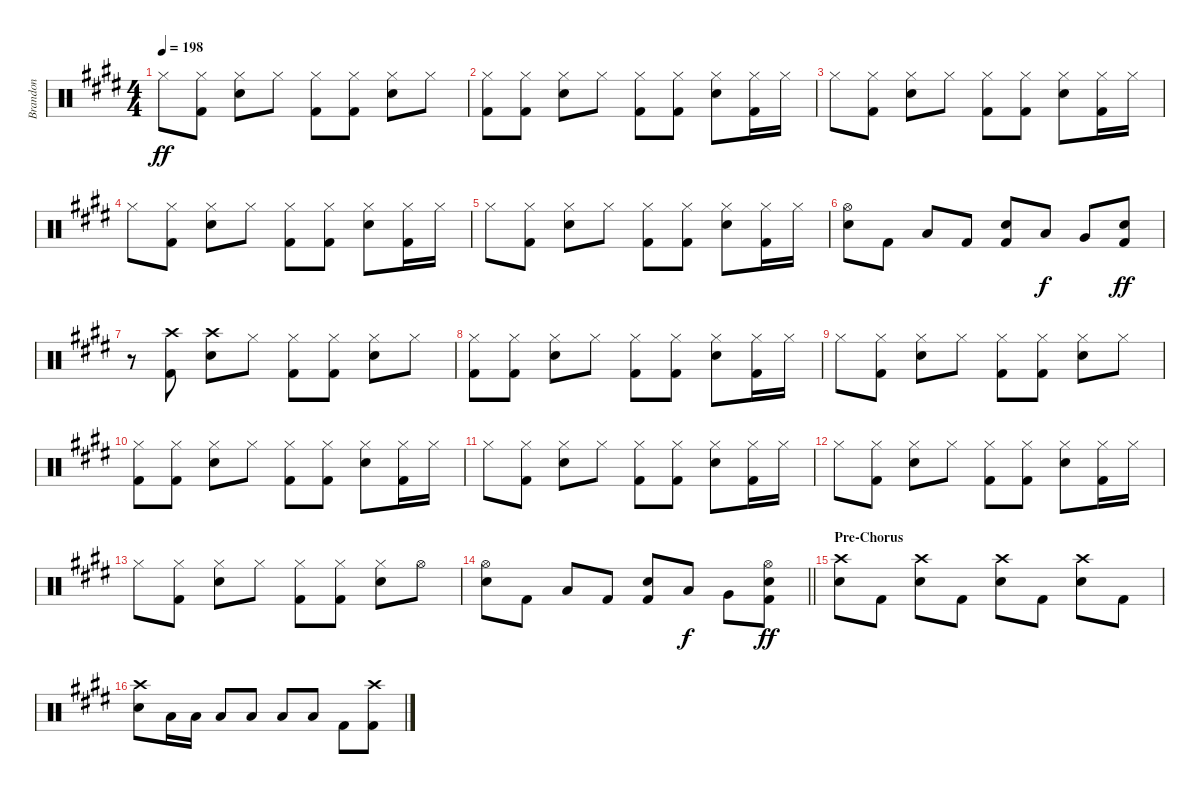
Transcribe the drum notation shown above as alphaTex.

\track ("Brandon" "Brandon") {instrument percussion}
\staff {score}
\articulation defaults
\ts (4 4)
\tempo 198
\clef neutral
\ks e "Hi-Hat (closed)".8{dy ff}
("Kick (hit) 2" "Hi-Hat (closed)").8 ("Snare (hit) 2" "Hi-Hat (closed)").8 "Hi-Hat (closed)".8 ("Hi-Hat (closed)" "Kick (hit) 2").8 ("Kick (hit) 2" "Hi-Hat (closed)").8 ("Snare (hit) 2" "Hi-Hat (closed)").8 "Hi-Hat (closed)".8 |
("Hi-Hat (closed)" "Kick (hit) 2").8 ("Kick (hit) 2" "Hi-Hat (closed)").8 ("Snare (hit) 2" "Hi-Hat (closed)").8 "Hi-Hat (closed)".8 ("Kick (hit) 2" "Hi-Hat (closed)").8 ("Kick (hit) 2" "Hi-Hat (closed)").8 ("Snare (hit) 2" "Hi-Hat (closed)").8 ("Kick (hit) 2" "Hi-Hat (closed)").16 "Hi-Hat (closed)".16 |
"Hi-Hat (closed)".8 ("Kick (hit) 2" "Hi-Hat (closed)").8 ("Snare (hit) 2" "Hi-Hat (closed)").8 "Hi-Hat (closed)".8 ("Kick (hit) 2" "Hi-Hat (closed)").8 ("Kick (hit) 2" "Hi-Hat (closed)").8 ("Snare (hit) 2" "Hi-Hat (closed)").8 ("Kick (hit) 2" "Hi-Hat (closed)").16 "Hi-Hat (closed)".16 |
"Hi-Hat (closed)".8 ("Kick (hit) 2" "Hi-Hat (closed)").8 ("Snare (hit) 2" "Hi-Hat (closed)").8 "Hi-Hat (closed)".8 ("Kick (hit) 2" "Hi-Hat (closed)").8 ("Kick (hit) 2" "Hi-Hat (closed)").8 ("Snare (hit) 2" "Hi-Hat (closed)").8 ("Kick (hit) 2" "Hi-Hat (closed)").16 "Hi-Hat (closed)".16 |
"Hi-Hat (closed)".8 ("Kick (hit) 2" "Hi-Hat (closed)").8 ("Snare (hit) 2" "Hi-Hat (closed)").8 "Hi-Hat (closed)".8 ("Kick (hit) 2" "Hi-Hat (closed)").8 ("Kick (hit) 2" "Hi-Hat (closed)").8 ("Snare (hit) 2" "Hi-Hat (closed)").8 ("Kick (hit) 2" "Hi-Hat (closed)").16 "Hi-Hat (closed)".16 |
("Snare (hit) 2" "Hi-Hat (open)").8 "Kick (hit) 2".8 "Low Tom (hit)".8 "Kick (hit) 2".8 ("Snare (hit) 2" "Kick (hit) 2").8 "Low Tom (hit)".8{dy f} "Very Low Tom (hit)".8 ("Snare (hit) 2" "Kick (hit) 2").8{dy ff} |
r.8 ("Kick (hit) 2" "Crash high (hit)").8 ("Snare (hit) 2" "Crash high (hit)").8 "Hi-Hat (closed)".8 ("Kick (hit) 2" "Hi-Hat (closed)").8 ("Kick (hit) 2" "Hi-Hat (closed)").8 ("Snare (hit) 2" "Hi-Hat (closed)").8 "Hi-Hat (closed)".8 |
("Kick (hit) 2" "Hi-Hat (closed)").8 ("Kick (hit) 2" "Hi-Hat (closed)").8 ("Snare (hit) 2" "Hi-Hat (closed)").8 "Hi-Hat (closed)".8 ("Kick (hit) 2" "Hi-Hat (closed)").8 ("Kick (hit) 2" "Hi-Hat (closed)").8 ("Snare (hit) 2" "Hi-Hat (closed)").8 ("Kick (hit) 2" "Hi-Hat (closed)").16 "Hi-Hat (closed)".16 |
"Hi-Hat (closed)".8 ("Kick (hit) 2" "Hi-Hat (closed)").8 ("Snare (hit) 2" "Hi-Hat (closed)").8 "Hi-Hat (closed)".8 ("Hi-Hat (closed)" "Kick (hit) 2").8 ("Kick (hit) 2" "Hi-Hat (closed)").8 ("Snare (hit) 2" "Hi-Hat (closed)").8 "Hi-Hat (closed)".8 |
("Hi-Hat (closed)" "Kick (hit) 2").8 ("Kick (hit) 2" "Hi-Hat (closed)").8 ("Snare (hit) 2" "Hi-Hat (closed)").8 "Hi-Hat (closed)".8 ("Kick (hit) 2" "Hi-Hat (closed)").8 ("Kick (hit) 2" "Hi-Hat (closed)").8 ("Snare (hit) 2" "Hi-Hat (closed)").8 ("Kick (hit) 2" "Hi-Hat (closed)").16 "Hi-Hat (closed)".16 |
"Hi-Hat (closed)".8 ("Kick (hit) 2" "Hi-Hat (closed)").8 ("Snare (hit) 2" "Hi-Hat (closed)").8 "Hi-Hat (closed)".8 ("Kick (hit) 2" "Hi-Hat (closed)").8 ("Kick (hit) 2" "Hi-Hat (closed)").8 ("Snare (hit) 2" "Hi-Hat (closed)").8 ("Kick (hit) 2" "Hi-Hat (closed)").16 "Hi-Hat (closed)".16 |
"Hi-Hat (closed)".8 ("Kick (hit) 2" "Hi-Hat (closed)").8 ("Snare (hit) 2" "Hi-Hat (closed)").8 "Hi-Hat (closed)".8 ("Kick (hit) 2" "Hi-Hat (closed)").8 ("Kick (hit) 2" "Hi-Hat (closed)").8 ("Snare (hit) 2" "Hi-Hat (closed)").8 ("Kick (hit) 2" "Hi-Hat (closed)").16 "Hi-Hat (closed)".16 |
"Hi-Hat (closed)".8 ("Kick (hit) 2" "Hi-Hat (closed)").8 ("Snare (hit) 2" "Hi-Hat (closed)").8 "Hi-Hat (closed)".8 ("Kick (hit) 2" "Hi-Hat (closed)").8 ("Kick (hit) 2" "Hi-Hat (closed)").8 ("Snare (hit) 2" "Hi-Hat (closed)").8 "Hi-Hat (open)".8 |
\barLineRight lightlight
("Snare (hit) 2" "Hi-Hat (open)").8 "Kick (hit) 2".8 "Low Tom (hit)".8 "Kick (hit) 2".8 ("Snare (hit) 2" "Kick (hit) 2").8 "Low Tom (hit)".8{dy f} "Very Low Tom (hit)".8 ("Snare (hit) 2" "Kick (hit) 2" "Hi-Hat (open)").8{dy ff} |
\section ("" "Pre-Chorus")
("Snare (hit) 2" "Crash high (hit)").8 "Kick (hit) 2".8 ("Snare (hit) 2" "Crash high (hit)").8 "Kick (hit) 2".8 ("Snare (hit) 2" "Crash high (hit)").8 "Kick (hit) 2".8 ("Snare (hit) 2" "Crash high (hit)").8 "Kick (hit) 2".8 |
("Snare (hit) 2" "Crash high (hit)").8 "Low Floor Tom (hit)".16 "Low Floor Tom (hit)".16 "Low Floor Tom (hit)".8 "Low Floor Tom (hit)".8 "Low Floor Tom (hit)".8 "Low Floor Tom (hit)".8 "Kick (hit) 2".8 ("Crash high (hit)" "Kick (hit) 2").8
